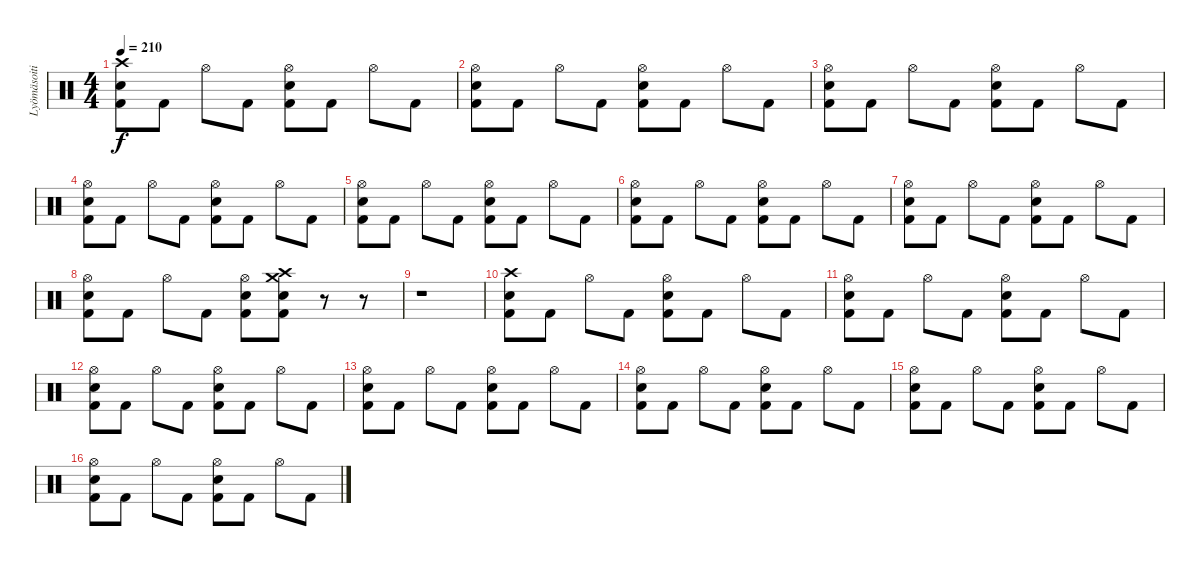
\track ("Lyömäsoitin" "Lyömäsoiti") {instrument percussion}
\staff {score}
\articulation defaults
\ts (4 4)
\tempo 210
\clef neutral
\ks c
("Crash high (hit)" "Electric Snare (hit)" "Kick (hit) 2").8{dy f} "Kick (hit) 2".8 "Hi-Hat (open)".8 "Kick (hit) 2".8 ("Hi-Hat (open)" "Electric Snare (hit)" "Kick (hit) 2").8 "Kick (hit) 2".8 "Hi-Hat (open)".8 "Kick (hit) 2".8 |
("Hi-Hat (open)" "Electric Snare (hit)" "Kick (hit) 2").8 "Kick (hit) 2".8 "Hi-Hat (open)".8 "Kick (hit) 2".8 ("Hi-Hat (open)" "Electric Snare (hit)" "Kick (hit) 2").8 "Kick (hit) 2".8 "Hi-Hat (open)".8 "Kick (hit) 2".8 |
("Hi-Hat (open)" "Electric Snare (hit)" "Kick (hit) 2").8 "Kick (hit) 2".8 "Hi-Hat (open)".8 "Kick (hit) 2".8 ("Hi-Hat (open)" "Electric Snare (hit)" "Kick (hit) 2").8 "Kick (hit) 2".8 "Hi-Hat (open)".8 "Kick (hit) 2".8 |
("Hi-Hat (open)" "Electric Snare (hit)" "Kick (hit) 2").8 "Kick (hit) 2".8 "Hi-Hat (open)".8 "Kick (hit) 2".8 ("Hi-Hat (open)" "Electric Snare (hit)" "Kick (hit) 2").8 "Kick (hit) 2".8 "Hi-Hat (open)".8 "Kick (hit) 2".8 |
("Hi-Hat (open)" "Electric Snare (hit)" "Kick (hit) 2").8 "Kick (hit) 2".8 "Hi-Hat (open)".8 "Kick (hit) 2".8 ("Hi-Hat (open)" "Electric Snare (hit)" "Kick (hit) 2").8 "Kick (hit) 2".8 "Hi-Hat (open)".8 "Kick (hit) 2".8 |
("Hi-Hat (open)" "Electric Snare (hit)" "Kick (hit) 2").8 "Kick (hit) 2".8 "Hi-Hat (open)".8 "Kick (hit) 2".8 ("Hi-Hat (open)" "Electric Snare (hit)" "Kick (hit) 2").8 "Kick (hit) 2".8 "Hi-Hat (open)".8 "Kick (hit) 2".8 |
("Hi-Hat (open)" "Electric Snare (hit)" "Kick (hit) 2").8 "Kick (hit) 2".8 "Hi-Hat (open)".8 "Kick (hit) 2".8 ("Hi-Hat (open)" "Electric Snare (hit)" "Kick (hit) 2").8 "Kick (hit) 2".8 "Hi-Hat (open)".8 "Kick (hit) 2".8 |
("Hi-Hat (open)" "Electric Snare (hit)" "Kick (hit) 2").8 "Kick (hit) 2".8 "Hi-Hat (open)".8 "Kick (hit) 2".8 ("Hi-Hat (open)" "Electric Snare (hit)" "Kick (hit) 2").8 ("Crash high (hit)" "Crash medium (hit)" "Electric Snare (hit)" "Kick (hit) 2").8 r.8 r.8 |
r.1 |
("Crash high (hit)" "Electric Snare (hit)" "Kick (hit) 2").8 "Kick (hit) 2".8 "Hi-Hat (open)".8 "Kick (hit) 2".8 ("Hi-Hat (open)" "Electric Snare (hit)" "Kick (hit) 2").8 "Kick (hit) 2".8 "Hi-Hat (open)".8 "Kick (hit) 2".8 |
("Hi-Hat (open)" "Electric Snare (hit)" "Kick (hit) 2").8 "Kick (hit) 2".8 "Hi-Hat (open)".8 "Kick (hit) 2".8 ("Hi-Hat (open)" "Electric Snare (hit)" "Kick (hit) 2").8 "Kick (hit) 2".8 "Hi-Hat (open)".8 "Kick (hit) 2".8 |
("Hi-Hat (open)" "Electric Snare (hit)" "Kick (hit) 2").8 "Kick (hit) 2".8 "Hi-Hat (open)".8 "Kick (hit) 2".8 ("Hi-Hat (open)" "Electric Snare (hit)" "Kick (hit) 2").8 "Kick (hit) 2".8 "Hi-Hat (open)".8 "Kick (hit) 2".8 |
("Hi-Hat (open)" "Electric Snare (hit)" "Kick (hit) 2").8 "Kick (hit) 2".8 "Hi-Hat (open)".8 "Kick (hit) 2".8 ("Hi-Hat (open)" "Electric Snare (hit)" "Kick (hit) 2").8 "Kick (hit) 2".8 "Hi-Hat (open)".8 "Kick (hit) 2".8 |
("Hi-Hat (open)" "Electric Snare (hit)" "Kick (hit) 2").8 "Kick (hit) 2".8 "Hi-Hat (open)".8 "Kick (hit) 2".8 ("Hi-Hat (open)" "Electric Snare (hit)" "Kick (hit) 2").8 "Kick (hit) 2".8 "Hi-Hat (open)".8 "Kick (hit) 2".8 |
("Hi-Hat (open)" "Electric Snare (hit)" "Kick (hit) 2").8 "Kick (hit) 2".8 "Hi-Hat (open)".8 "Kick (hit) 2".8 ("Hi-Hat (open)" "Electric Snare (hit)" "Kick (hit) 2").8 "Kick (hit) 2".8 "Hi-Hat (open)".8 "Kick (hit) 2".8 |
("Hi-Hat (open)" "Electric Snare (hit)" "Kick (hit) 2").8 "Kick (hit) 2".8 "Hi-Hat (open)".8 "Kick (hit) 2".8 ("Hi-Hat (open)" "Electric Snare (hit)" "Kick (hit) 2").8 "Kick (hit) 2".8 "Hi-Hat (open)".8 "Kick (hit) 2".8
